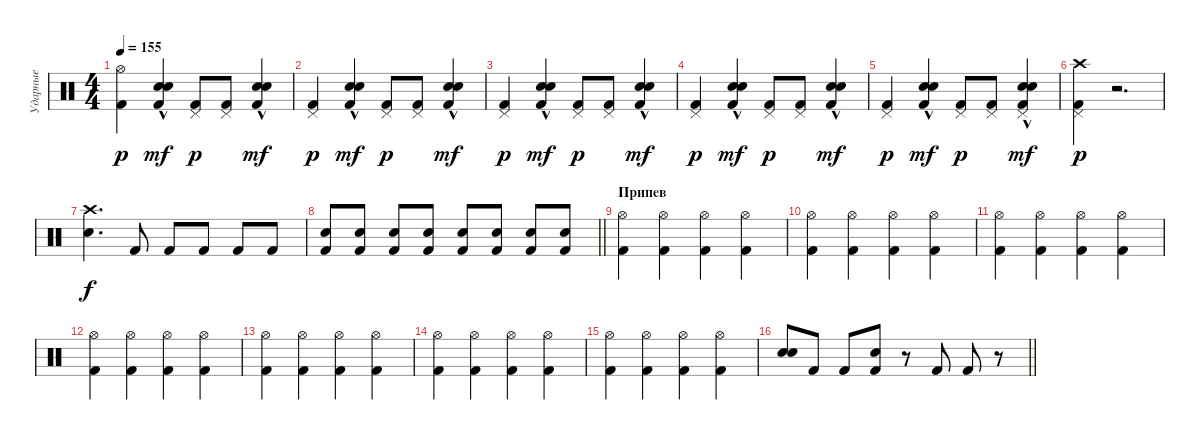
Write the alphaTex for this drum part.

\track ("Ударные" "Ударные") {instrument percussion}
\staff {score}
\articulation defaults
\ts (4 4)
\tempo 155
\clef neutral
\ks c
("Kick (hit) 2" "Hi-Hat (open)").4{dy p} ("Electric Snare (hit)"{hac} "Kick (hit) 2" "Snare (hit) 2"{hac}).4{dy mf} ("Pedal Hi-Hat (hit)" "Kick (hit) 2").8{dy p} ("Pedal Hi-Hat (hit)" "Kick (hit) 2").8 ("Electric Snare (hit)"{hac} "Kick (hit) 2" "Snare (hit) 2"{hac}).4{dy mf} |
("Pedal Hi-Hat (hit)" "Kick (hit) 2").4{dy p} ("Electric Snare (hit)"{hac} "Kick (hit) 2" "Snare (hit) 2"{hac}).4{dy mf} ("Pedal Hi-Hat (hit)" "Kick (hit) 2").8{dy p} ("Pedal Hi-Hat (hit)" "Kick (hit) 2").8 ("Electric Snare (hit)"{hac} "Kick (hit) 2" "Snare (hit) 2"{hac}).4{dy mf} |
("Pedal Hi-Hat (hit)" "Kick (hit) 2").4{dy p} ("Electric Snare (hit)"{hac} "Kick (hit) 2" "Snare (hit) 2"{hac}).4{dy mf} ("Pedal Hi-Hat (hit)" "Kick (hit) 2").8{dy p} ("Pedal Hi-Hat (hit)" "Kick (hit) 2").8 ("Electric Snare (hit)"{hac} "Kick (hit) 2" "Snare (hit) 2"{hac}).4{dy mf} |
("Pedal Hi-Hat (hit)" "Kick (hit) 2").4{dy p} ("Electric Snare (hit)"{hac} "Kick (hit) 2" "Snare (hit) 2"{hac}).4{dy mf} ("Pedal Hi-Hat (hit)" "Kick (hit) 2").8{dy p} ("Pedal Hi-Hat (hit)" "Kick (hit) 2").8 ("Electric Snare (hit)"{hac} "Kick (hit) 2" "Snare (hit) 2"{hac}).4{dy mf} |
("Kick (hit) 2" "Pedal Hi-Hat (hit)").4{dy p} ("Electric Snare (hit)"{hac} "Kick (hit) 2" "Snare (hit) 2"{hac}).4{dy mf} ("Pedal Hi-Hat (hit)" "Kick (hit) 2").8{dy p} ("Pedal Hi-Hat (hit)" "Kick (hit) 2").8 ("Electric Snare (hit)"{hac} "Pedal Hi-Hat (hit)" "Kick (hit) 2" "Snare (hit) 2"{hac}).4{dy mf} |
("Pedal Hi-Hat (hit)" "Crash high (hit)" "Kick (hit) 2").4{dy p} r.2{d} |
("Crash high (hit)" "Snare (hit) 2").4{d dy f} "Kick (hit) 2".8 "Kick (hit) 2".8 "Kick (hit) 2".8 "Kick (hit) 2".8 "Kick (hit) 2".8 |
\barLineRight lightlight
("Snare (hit) 2" "Kick (hit) 2").8 ("Snare (hit) 2" "Kick (hit) 2").8 ("Snare (hit) 2" "Kick (hit) 2").8 ("Snare (hit) 2" "Kick (hit) 2").8 ("Snare (hit) 2" "Kick (hit) 2").8 ("Snare (hit) 2" "Kick (hit) 2").8 ("Snare (hit) 2" "Kick (hit) 2").8 ("Snare (hit) 2" "Kick (hit) 2").8 |
\section ("" "Припев")
("Hi-Hat (open)" "Kick (hit) 2").4 ("Hi-Hat (open)" "Kick (hit) 2").4 ("Hi-Hat (open)" "Kick (hit) 2").4 ("Hi-Hat (open)" "Kick (hit) 2").4 |
("Hi-Hat (open)" "Kick (hit) 2").4 ("Hi-Hat (open)" "Kick (hit) 2").4 ("Hi-Hat (open)" "Kick (hit) 2").4 ("Hi-Hat (open)" "Kick (hit) 2").4 |
("Hi-Hat (open)" "Kick (hit) 2").4 ("Hi-Hat (open)" "Kick (hit) 2").4 ("Hi-Hat (open)" "Kick (hit) 2").4 ("Hi-Hat (open)" "Kick (hit) 2").4 |
("Hi-Hat (open)" "Kick (hit) 2").4 ("Hi-Hat (open)" "Kick (hit) 2").4 ("Hi-Hat (open)" "Kick (hit) 2").4 ("Hi-Hat (open)" "Kick (hit) 2").4 |
("Hi-Hat (open)" "Kick (hit) 2").4 ("Hi-Hat (open)" "Kick (hit) 2").4 ("Hi-Hat (open)" "Kick (hit) 2").4 ("Hi-Hat (open)" "Kick (hit) 2").4 |
("Hi-Hat (open)" "Kick (hit) 2").4 ("Hi-Hat (open)" "Kick (hit) 2").4 ("Hi-Hat (open)" "Kick (hit) 2").4 ("Hi-Hat (open)" "Kick (hit) 2").4 |
("Hi-Hat (open)" "Kick (hit) 2").4 ("Hi-Hat (open)" "Kick (hit) 2").4 ("Hi-Hat (open)" "Kick (hit) 2").4 ("Hi-Hat (open)" "Kick (hit) 2").4 |
\barLineRight lightlight
("Snare (hit) 2" "Electric Snare (hit)").8 "Kick (hit) 2".8 "Kick (hit) 2".8 ("Snare (hit) 2" "Kick (hit) 2").8 r.8 "Kick (hit) 2".8 "Kick (hit) 2".8 r.8
